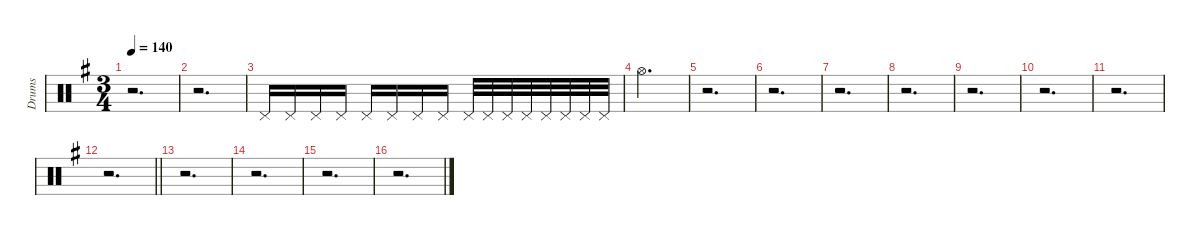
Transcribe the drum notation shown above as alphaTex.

\defaultSystemsLayout 8
\hideDynamics
\bracketExtendMode groupsimilarinstruments
\firstSystemTrackNameMode fullname
\otherSystemsTrackNameOrientation horizontal
\track ("Drums" "drm.") {defaultSystemsLayout 4 instrument percussion}
\staff {score}
\articulation defaults
\ts (3 4)
\tempo 140
\clef neutral
\ks g
r.2{d dy ppp beam Down} |
r.2{d beam Down} |
"Pedal Hi-Hat (hit)"{acc forcenatural}.16{beam Up} "Pedal Hi-Hat (hit)"{acc forcenatural}.16{beam Up} "Pedal Hi-Hat (hit)"{acc forcenatural}.16{dy pp beam Up} "Pedal Hi-Hat (hit)"{acc forcenatural}.16{beam Up} "Pedal Hi-Hat (hit)"{acc forcenatural}.16{dy p beam Up} "Pedal Hi-Hat (hit)"{acc forcenatural}.16{beam Up} "Pedal Hi-Hat (hit)"{acc forcenatural}.16{beam Up} "Pedal Hi-Hat (hit)"{acc forcenatural}.16{beam Up} "Pedal Hi-Hat (hit)"{acc forcenatural}.32{dy mp beam Up} "Pedal Hi-Hat (hit)"{acc forcenatural}.32{beam Up} "Pedal Hi-Hat (hit)"{acc forcenatural}.32{beam Up} "Pedal Hi-Hat (hit)"{acc forcenatural}.32{beam Up} "Pedal Hi-Hat (hit)"{acc forcenatural}.32{dy mf beam Up} "Pedal Hi-Hat (hit)"{acc forcenatural}.32{beam Up} "Pedal Hi-Hat (hit)"{acc forcenatural}.32{beam Up} "Pedal Hi-Hat (hit)"{acc forcenatural}.32{beam Up} |
"Hi-Hat (open)"{acc forcenatural}.2{d beam Down} |
r.2{d beam Down} |
r.2{d beam Down} |
r.2{d beam Down} |
r.2{d beam Down} |
r.2{d beam Down} |
r.2{d beam Down} |
r.2{d beam Down} |
\barLineRight lightlight
r.2{d beam Down} |
r.2{d beam Down} |
r.2{d beam Down} |
r.2{d beam Down} |
r.2{d beam Down}
